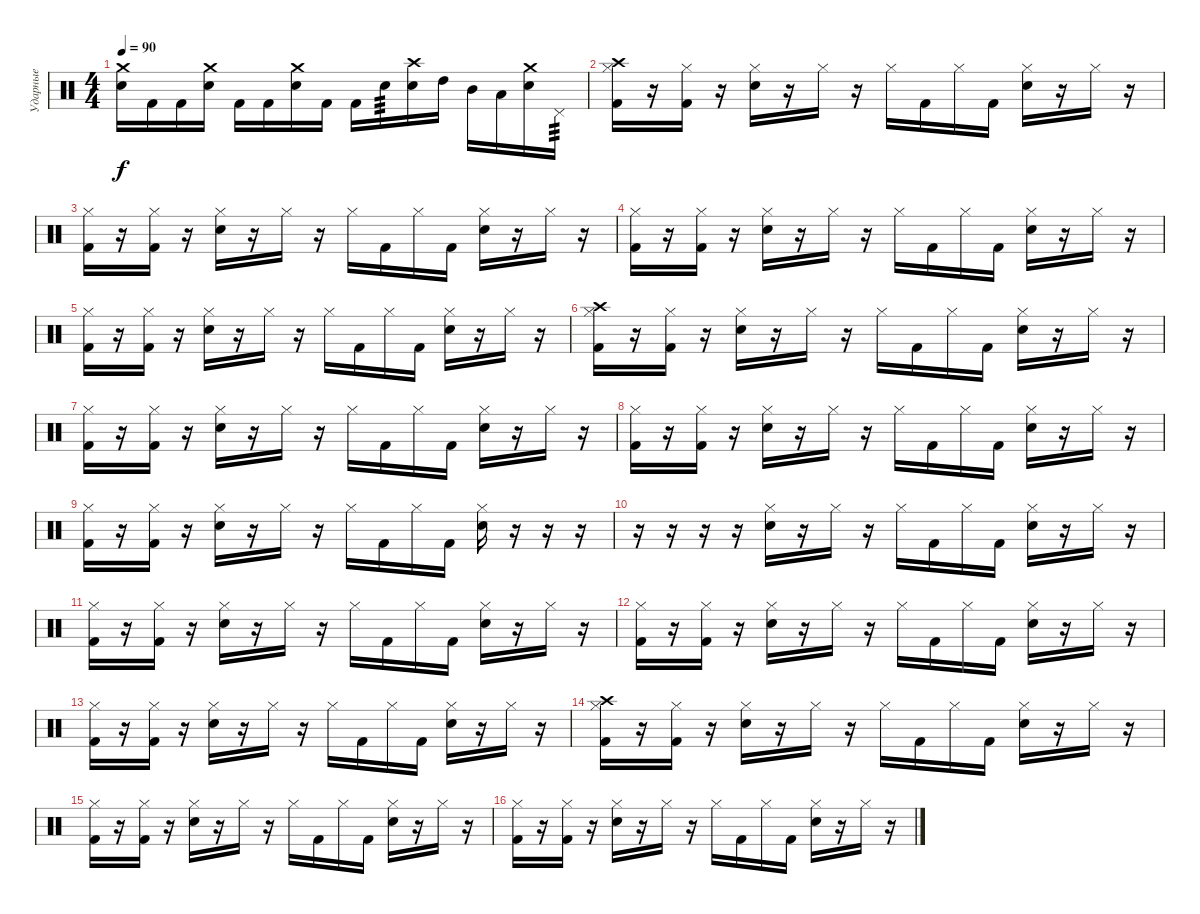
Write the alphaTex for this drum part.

\track ("Ударные" "Ударные") {instrument percussion}
\staff {score}
\articulation defaults
\ts (4 4)
\tempo 90
\clef neutral
\ks c
("Crash medium (hit)" "Electric Snare (hit)").16{dy f} "Kick (hit) 2".16 "Kick (hit) 2".16 ("Crash medium (hit)" "Electric Snare (hit)").16 "Kick (hit) 2".16 "Kick (hit) 2".16 ("Crash medium (hit)" "Electric Snare (hit)").16 "Kick (hit) 2".16 "Kick (hit) 2".16 "Electric Snare (hit)".16{tp 3} ("Crash high (hit)" "Electric Snare (hit)").16 "High Tom (hit)".16 "Mid Tom (hit)".16 "Low Tom (hit)".16 ("Crash medium (hit)" "Electric Snare (hit)").16 "Pedal Hi-Hat (hit)".16{tp 3} |
("Crash high (hit)" "Hi-Hat (closed)" "Kick (hit) 2").16 r.16 ("Hi-Hat (closed)" "Kick (hit) 2").16 r.16 ("Hi-Hat (closed)" "Electric Snare (hit)").16 r.16 "Hi-Hat (closed)".16 r.16 "Hi-Hat (closed)".16 "Kick (hit) 2".16 "Hi-Hat (closed)".16 "Kick (hit) 2".16 ("Hi-Hat (closed)" "Electric Snare (hit)").16 r.16 "Hi-Hat (closed)".16 r.16 |
("Hi-Hat (closed)" "Kick (hit) 2").16 r.16 ("Hi-Hat (closed)" "Kick (hit) 2").16 r.16 ("Hi-Hat (closed)" "Electric Snare (hit)").16 r.16 "Hi-Hat (closed)".16 r.16 "Hi-Hat (closed)".16 "Kick (hit) 2".16 "Hi-Hat (closed)".16 "Kick (hit) 2".16 ("Hi-Hat (closed)" "Electric Snare (hit)").16 r.16 "Hi-Hat (closed)".16 r.16 |
("Hi-Hat (closed)" "Kick (hit) 2").16 r.16 ("Hi-Hat (closed)" "Kick (hit) 2").16 r.16 ("Hi-Hat (closed)" "Electric Snare (hit)").16 r.16 "Hi-Hat (closed)".16 r.16 "Hi-Hat (closed)".16 "Kick (hit) 2".16 "Hi-Hat (closed)".16 "Kick (hit) 2".16 ("Hi-Hat (closed)" "Electric Snare (hit)").16 r.16 "Hi-Hat (closed)".16 r.16 |
("Hi-Hat (closed)" "Kick (hit) 2").16 r.16 ("Hi-Hat (closed)" "Kick (hit) 2").16 r.16 ("Hi-Hat (closed)" "Electric Snare (hit)").16 r.16 "Hi-Hat (closed)".16 r.16 "Hi-Hat (closed)".16 "Kick (hit) 2".16 "Hi-Hat (closed)".16 "Kick (hit) 2".16 ("Hi-Hat (closed)" "Electric Snare (hit)").16 r.16 "Hi-Hat (closed)".16 r.16 |
("Crash high (hit)" "Hi-Hat (closed)" "Kick (hit) 2").16 r.16 ("Hi-Hat (closed)" "Kick (hit) 2").16 r.16 ("Hi-Hat (closed)" "Electric Snare (hit)").16 r.16 "Hi-Hat (closed)".16 r.16 "Hi-Hat (closed)".16 "Kick (hit) 2".16 "Hi-Hat (closed)".16 "Kick (hit) 2".16 ("Hi-Hat (closed)" "Electric Snare (hit)").16 r.16 "Hi-Hat (closed)".16 r.16 |
("Hi-Hat (closed)" "Kick (hit) 2").16 r.16 ("Hi-Hat (closed)" "Kick (hit) 2").16 r.16 ("Hi-Hat (closed)" "Electric Snare (hit)").16 r.16 "Hi-Hat (closed)".16 r.16 "Hi-Hat (closed)".16 "Kick (hit) 2".16 "Hi-Hat (closed)".16 "Kick (hit) 2".16 ("Hi-Hat (closed)" "Electric Snare (hit)").16 r.16 "Hi-Hat (closed)".16 r.16 |
("Hi-Hat (closed)" "Kick (hit) 2").16 r.16 ("Hi-Hat (closed)" "Kick (hit) 2").16 r.16 ("Hi-Hat (closed)" "Electric Snare (hit)").16 r.16 "Hi-Hat (closed)".16 r.16 "Hi-Hat (closed)".16 "Kick (hit) 2".16 "Hi-Hat (closed)".16 "Kick (hit) 2".16 ("Hi-Hat (closed)" "Electric Snare (hit)").16 r.16 "Hi-Hat (closed)".16 r.16 |
("Hi-Hat (closed)" "Kick (hit) 2").16 r.16 ("Hi-Hat (closed)" "Kick (hit) 2").16 r.16 ("Hi-Hat (closed)" "Electric Snare (hit)").16 r.16 "Hi-Hat (closed)".16 r.16 "Hi-Hat (closed)".16 "Kick (hit) 2".16 "Hi-Hat (closed)".16 "Kick (hit) 2".16 ("Hi-Hat (closed)" "Electric Snare (hit)").16 r.16 r.16 r.16 |
r.16 r.16 r.16 r.16 ("Hi-Hat (closed)" "Electric Snare (hit)").16 r.16 "Hi-Hat (closed)".16 r.16 "Hi-Hat (closed)".16 "Kick (hit) 2".16 "Hi-Hat (closed)".16 "Kick (hit) 2".16 ("Hi-Hat (closed)" "Electric Snare (hit)").16 r.16 "Hi-Hat (closed)".16 r.16 |
("Hi-Hat (closed)" "Kick (hit) 2").16 r.16 ("Hi-Hat (closed)" "Kick (hit) 2").16 r.16 ("Hi-Hat (closed)" "Electric Snare (hit)").16 r.16 "Hi-Hat (closed)".16 r.16 "Hi-Hat (closed)".16 "Kick (hit) 2".16 "Hi-Hat (closed)".16 "Kick (hit) 2".16 ("Hi-Hat (closed)" "Electric Snare (hit)").16 r.16 "Hi-Hat (closed)".16 r.16 |
("Hi-Hat (closed)" "Kick (hit) 2").16 r.16 ("Hi-Hat (closed)" "Kick (hit) 2").16 r.16 ("Hi-Hat (closed)" "Electric Snare (hit)").16 r.16 "Hi-Hat (closed)".16 r.16 "Hi-Hat (closed)".16 "Kick (hit) 2".16 "Hi-Hat (closed)".16 "Kick (hit) 2".16 ("Hi-Hat (closed)" "Electric Snare (hit)").16 r.16 "Hi-Hat (closed)".16 r.16 |
("Hi-Hat (closed)" "Kick (hit) 2").16 r.16 ("Hi-Hat (closed)" "Kick (hit) 2").16 r.16 ("Hi-Hat (closed)" "Electric Snare (hit)").16 r.16 "Hi-Hat (closed)".16 r.16 "Hi-Hat (closed)".16 "Kick (hit) 2".16 "Hi-Hat (closed)".16 "Kick (hit) 2".16 ("Hi-Hat (closed)" "Electric Snare (hit)").16 r.16 "Hi-Hat (closed)".16 r.16 |
("Crash high (hit)" "Hi-Hat (closed)" "Kick (hit) 2").16 r.16 ("Hi-Hat (closed)" "Kick (hit) 2").16 r.16 ("Hi-Hat (closed)" "Electric Snare (hit)").16 r.16 "Hi-Hat (closed)".16 r.16 "Hi-Hat (closed)".16 "Kick (hit) 2".16 "Hi-Hat (closed)".16 "Kick (hit) 2".16 ("Hi-Hat (closed)" "Electric Snare (hit)").16 r.16 "Hi-Hat (closed)".16 r.16 |
("Hi-Hat (closed)" "Kick (hit) 2").16 r.16 ("Hi-Hat (closed)" "Kick (hit) 2").16 r.16 ("Hi-Hat (closed)" "Electric Snare (hit)").16 r.16 "Hi-Hat (closed)".16 r.16 "Hi-Hat (closed)".16 "Kick (hit) 2".16 "Hi-Hat (closed)".16 "Kick (hit) 2".16 ("Hi-Hat (closed)" "Electric Snare (hit)").16 r.16 "Hi-Hat (closed)".16 r.16 |
("Hi-Hat (closed)" "Kick (hit) 2").16 r.16 ("Hi-Hat (closed)" "Kick (hit) 2").16 r.16 ("Hi-Hat (closed)" "Electric Snare (hit)").16 r.16 "Hi-Hat (closed)".16 r.16 "Hi-Hat (closed)".16 "Kick (hit) 2".16 "Hi-Hat (closed)".16 "Kick (hit) 2".16 ("Hi-Hat (closed)" "Electric Snare (hit)").16 r.16 "Hi-Hat (closed)".16 r.16
